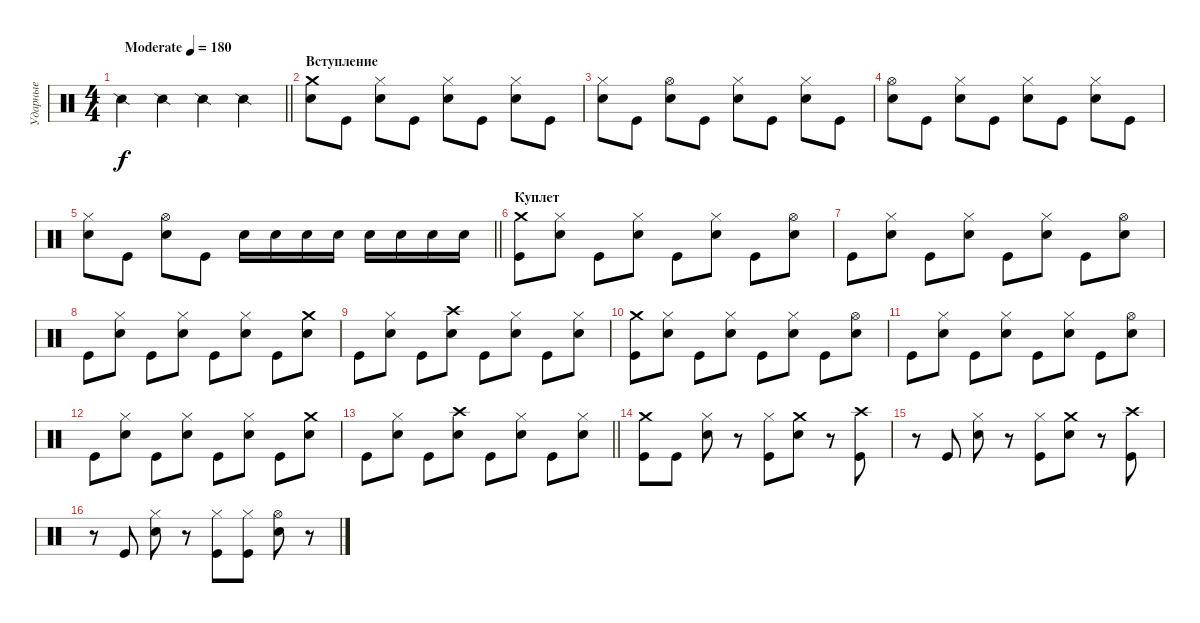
\track ("Ударные" "Ударные") {instrument percussion}
\staff {score}
\articulation defaults
\ts (4 4)
\tempo (180 "Moderate")
\clef neutral
\barLineRight lightlight
\ks c "Snare (side stick) 2".4{dy f} "Snare (side stick) 2".4 "Snare (side stick) 2".4 "Snare (side stick) 2".4
|
\section ("" "Вступление")
("Crash medium (hit)" "Electric Snare (hit)").8 "Kick (hit)".8 ("Hi-Hat (closed)" "Electric Snare (hit)").8 "Kick (hit)".8 ("Hi-Hat (closed)" "Electric Snare (hit)").8 "Kick (hit)".8 ("Hi-Hat (closed)" "Electric Snare (hit)").8 "Kick (hit)".8 |
("Hi-Hat (closed)" "Electric Snare (hit)").8 "Kick (hit)".8 ("Hi-Hat (open)" "Electric Snare (hit)").8 "Kick (hit)".8 ("Hi-Hat (closed)" "Electric Snare (hit)").8 "Kick (hit)".8 ("Hi-Hat (closed)" "Electric Snare (hit)").8 "Kick (hit)".8 |
("Hi-Hat (open)" "Electric Snare (hit)").8 "Kick (hit)".8 ("Hi-Hat (closed)" "Electric Snare (hit)").8 "Kick (hit)".8 ("Hi-Hat (closed)" "Electric Snare (hit)").8 "Kick (hit)".8 ("Hi-Hat (closed)" "Electric Snare (hit)").8 "Kick (hit)".8 |
\barLineRight lightlight
("Hi-Hat (closed)" "Electric Snare (hit)").8 "Kick (hit)".8 ("Hi-Hat (open)" "Electric Snare (hit)").8 "Kick (hit)".8 "Electric Snare (hit)".16 "Electric Snare (hit)".16 "Electric Snare (hit)".16 "Electric Snare (hit)".16 "Electric Snare (hit)".16 "Electric Snare (hit)".16 "Electric Snare (hit)".16 "Electric Snare (hit)".16 |
\section ("" "Куплет")
("Crash medium (hit)" "Kick (hit)").8 ("Hi-Hat (closed)" "Electric Snare (hit)").8 "Kick (hit)".8 ("Hi-Hat (closed)" "Electric Snare (hit)").8 "Kick (hit)".8 ("Hi-Hat (closed)" "Electric Snare (hit)").8 "Kick (hit)".8 ("Hi-Hat (open)" "Electric Snare (hit)").8 |
"Kick (hit)".8 ("Hi-Hat (closed)" "Electric Snare (hit)").8 "Kick (hit)".8 ("Hi-Hat (closed)" "Electric Snare (hit)").8 "Kick (hit)".8 ("Hi-Hat (closed)" "Electric Snare (hit)").8 "Kick (hit)".8 ("Hi-Hat (open)" "Electric Snare (hit)").8 |
"Kick (hit)".8 ("Hi-Hat (closed)" "Electric Snare (hit)").8 "Kick (hit)".8 ("Hi-Hat (closed)" "Electric Snare (hit)").8 "Kick (hit)".8 ("Hi-Hat (closed)" "Electric Snare (hit)").8 "Kick (hit)".8 ("Crash medium (hit)" "Electric Snare (hit)").8 |
"Kick (hit)".8 ("Hi-Hat (closed)" "Electric Snare (hit)").8 "Kick (hit)".8 ("Crash high (hit)" "Electric Snare (hit)").8 "Kick (hit)".8 ("Hi-Hat (closed)" "Electric Snare (hit)").8 "Kick (hit)".8 ("Hi-Hat (closed)" "Electric Snare (hit)").8 |
("Crash medium (hit)" "Kick (hit)").8 ("Hi-Hat (closed)" "Electric Snare (hit)").8 "Kick (hit)".8 ("Hi-Hat (closed)" "Electric Snare (hit)").8 "Kick (hit)".8 ("Hi-Hat (closed)" "Electric Snare (hit)").8 "Kick (hit)".8 ("Hi-Hat (open)" "Electric Snare (hit)").8 |
"Kick (hit)".8 ("Hi-Hat (closed)" "Electric Snare (hit)").8 "Kick (hit)".8 ("Hi-Hat (closed)" "Electric Snare (hit)").8 "Kick (hit)".8 ("Hi-Hat (closed)" "Electric Snare (hit)").8 "Kick (hit)".8 ("Hi-Hat (open)" "Electric Snare (hit)").8 |
"Kick (hit)".8 ("Hi-Hat (closed)" "Electric Snare (hit)").8 "Kick (hit)".8 ("Hi-Hat (closed)" "Electric Snare (hit)").8 "Kick (hit)".8 ("Hi-Hat (closed)" "Electric Snare (hit)").8 "Kick (hit)".8 ("Crash medium (hit)" "Electric Snare (hit)").8 |
\barLineRight lightlight "Kick (hit)".8
("Hi-Hat (closed)" "Electric Snare (hit)").8 "Kick (hit)".8 ("Crash high (hit)" "Electric Snare (hit)").8 "Kick (hit)".8 ("Hi-Hat (closed)" "Electric Snare (hit)").8 "Kick (hit)".8 ("Hi-Hat (closed)" "Electric Snare (hit)").8 |
\section ("" " ")
("Crash medium (hit)" "Kick (hit)").8 "Kick (hit)".8 ("Hi-Hat (closed)" "Electric Snare (hit)").8 r.8 ("Hi-Hat (closed)" "Kick (hit)").8 ("Crash medium (hit)" "Electric Snare (hit)").8 r.8 ("Crash high (hit)" "Kick (hit)").8 |
r.8 "Kick (hit)".8 ("Hi-Hat (closed)" "Electric Snare (hit)").8 r.8 ("Hi-Hat (closed)" "Kick (hit)").8 ("Crash medium (hit)" "Electric Snare (hit)").8 r.8 ("Crash high (hit)" "Kick (hit)").8 |
r.8 "Kick (hit)".8 ("Hi-Hat (closed)" "Electric Snare (hit)").8 r.8 ("Hi-Hat (closed)" "Kick (hit)").8 ("Hi-Hat (closed)" "Kick (hit)").8 ("Hi-Hat (open)" "Electric Snare (hit)").8 r.8
